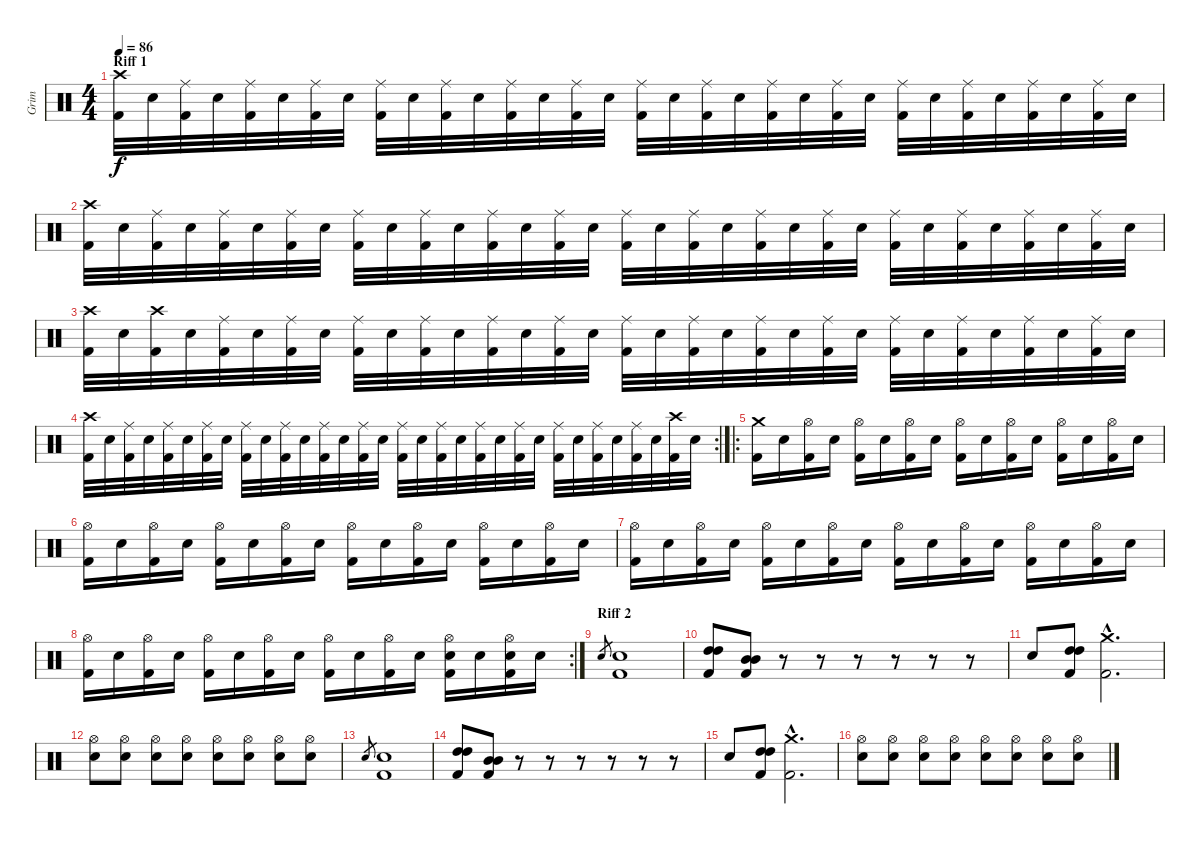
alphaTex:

\track ("Grim" "Grim") {instrument percussion}
\staff {score}
\articulation defaults
\ts (4 4)
\section ("" "Riff 1")
\tempo 86
\clef neutral
\ks c
("Crash high (hit)" "Kick (hit) 2").32{dy f} "Electric Snare (hit)".32 ("Ride (middle)" "Kick (hit) 2").32 "Electric Snare (hit)".32 ("Ride (middle)" "Kick (hit) 2").32 "Electric Snare (hit)".32 ("Ride (middle)" "Kick (hit) 2").32 "Electric Snare (hit)".32 ("Ride (middle)" "Kick (hit) 2").32 "Electric Snare (hit)".32 ("Ride (middle)" "Kick (hit) 2").32 "Electric Snare (hit)".32 ("Ride (middle)" "Kick (hit) 2").32 "Electric Snare (hit)".32 ("Ride (middle)" "Kick (hit) 2").32 "Electric Snare (hit)".32 ("Ride (middle)" "Kick (hit) 2").32 "Electric Snare (hit)".32 ("Ride (middle)" "Kick (hit) 2").32 "Electric Snare (hit)".32 ("Ride (middle)" "Kick (hit) 2").32 "Electric Snare (hit)".32 ("Ride (middle)" "Kick (hit) 2").32 "Electric Snare (hit)".32 ("Ride (middle)" "Kick (hit) 2").32 "Electric Snare (hit)".32 ("Ride (middle)" "Kick (hit) 2").32 "Electric Snare (hit)".32 ("Ride (middle)" "Kick (hit) 2").32 "Electric Snare (hit)".32 ("Ride (middle)" "Kick (hit) 2").32 "Electric Snare (hit)".32 |
("Crash high (hit)" "Kick (hit) 2").32 "Electric Snare (hit)".32 ("Ride (middle)" "Kick (hit) 2").32 "Electric Snare (hit)".32 ("Ride (middle)" "Kick (hit) 2").32 "Electric Snare (hit)".32 ("Ride (middle)" "Kick (hit) 2").32 "Electric Snare (hit)".32 ("Ride (middle)" "Kick (hit) 2").32 "Electric Snare (hit)".32 ("Ride (middle)" "Kick (hit) 2").32 "Electric Snare (hit)".32 ("Ride (middle)" "Kick (hit) 2").32 "Electric Snare (hit)".32 ("Ride (middle)" "Kick (hit) 2").32 "Electric Snare (hit)".32 ("Ride (middle)" "Kick (hit) 2").32 "Electric Snare (hit)".32 ("Ride (middle)" "Kick (hit) 2").32 "Electric Snare (hit)".32 ("Ride (middle)" "Kick (hit) 2").32 "Electric Snare (hit)".32 ("Ride (middle)" "Kick (hit) 2").32 "Electric Snare (hit)".32 ("Ride (middle)" "Kick (hit) 2").32 "Electric Snare (hit)".32 ("Ride (middle)" "Kick (hit) 2").32 "Electric Snare (hit)".32 ("Ride (middle)" "Kick (hit) 2").32 "Electric Snare (hit)".32 ("Ride (middle)" "Kick (hit) 2").32 "Electric Snare (hit)".32 |
("Crash high (hit)" "Kick (hit) 2").32 "Electric Snare (hit)".32 ("Crash high (hit)" "Kick (hit) 2").32 "Electric Snare (hit)".32 ("Ride (middle)" "Kick (hit) 2").32 "Electric Snare (hit)".32 ("Ride (middle)" "Kick (hit) 2").32 "Electric Snare (hit)".32 ("Ride (middle)" "Kick (hit) 2").32 "Electric Snare (hit)".32 ("Ride (middle)" "Kick (hit) 2").32 "Electric Snare (hit)".32 ("Ride (middle)" "Kick (hit) 2").32 "Electric Snare (hit)".32 ("Ride (middle)" "Kick (hit) 2").32 "Electric Snare (hit)".32 ("Ride (middle)" "Kick (hit) 2").32 "Electric Snare (hit)".32 ("Ride (middle)" "Kick (hit) 2").32 "Electric Snare (hit)".32 ("Ride (middle)" "Kick (hit) 2").32 "Electric Snare (hit)".32 ("Ride (middle)" "Kick (hit) 2").32 "Electric Snare (hit)".32 ("Ride (middle)" "Kick (hit) 2").32 "Electric Snare (hit)".32 ("Ride (middle)" "Kick (hit) 2").32 "Electric Snare (hit)".32 ("Ride (middle)" "Kick (hit) 2").32 "Electric Snare (hit)".32 ("Ride (middle)" "Kick (hit) 2").32 "Electric Snare (hit)".32 |
\rc 2
("Crash high (hit)" "Kick (hit) 2").32 "Electric Snare (hit)".32 ("Ride (middle)" "Kick (hit) 2").32 "Electric Snare (hit)".32 ("Ride (middle)" "Kick (hit) 2").32 "Electric Snare (hit)".32 ("Ride (middle)" "Kick (hit) 2").32 "Electric Snare (hit)".32 ("Ride (middle)" "Kick (hit) 2").32 "Electric Snare (hit)".32 ("Ride (middle)" "Kick (hit) 2").32 "Electric Snare (hit)".32 ("Ride (middle)" "Kick (hit) 2").32 "Electric Snare (hit)".32 ("Ride (middle)" "Kick (hit) 2").32 "Electric Snare (hit)".32 ("Ride (middle)" "Kick (hit) 2").32 "Electric Snare (hit)".32 ("Ride (middle)" "Kick (hit) 2").32 "Electric Snare (hit)".32 ("Ride (middle)" "Kick (hit) 2").32 "Electric Snare (hit)".32 ("Ride (middle)" "Kick (hit) 2").32 "Electric Snare (hit)".32 ("Ride (middle)" "Kick (hit) 2").32 "Electric Snare (hit)".32 ("Ride (middle)" "Kick (hit) 2").32 "Electric Snare (hit)".32 ("Ride (middle)" "Kick (hit) 2").32 "Electric Snare (hit)".32 ("Crash high (hit)" "Kick (hit) 2").32 "Electric Snare (hit)".32 |
\ro
("Crash medium (hit)" "Kick (hit) 2").16 "Electric Snare (hit)".16 ("Hi-Hat (open)" "Kick (hit) 2").16 "Electric Snare (hit)".16 ("Hi-Hat (open)" "Kick (hit) 2").16 "Electric Snare (hit)".16 ("Hi-Hat (open)" "Kick (hit) 2").16 "Electric Snare (hit)".16 ("Hi-Hat (open)" "Kick (hit) 2").16 "Electric Snare (hit)".16 ("Hi-Hat (open)" "Kick (hit) 2").16 "Electric Snare (hit)".16 ("Hi-Hat (open)" "Kick (hit) 2").16 "Electric Snare (hit)".16 ("Hi-Hat (open)" "Kick (hit) 2").16 "Electric Snare (hit)".16 |
("Hi-Hat (open)" "Kick (hit) 2").16 "Electric Snare (hit)".16 ("Hi-Hat (open)" "Kick (hit) 2").16 "Electric Snare (hit)".16 ("Hi-Hat (open)" "Kick (hit) 2").16 "Electric Snare (hit)".16 ("Hi-Hat (open)" "Kick (hit) 2").16 "Electric Snare (hit)".16 ("Hi-Hat (open)" "Kick (hit) 2").16 "Electric Snare (hit)".16 ("Hi-Hat (open)" "Kick (hit) 2").16 "Electric Snare (hit)".16 ("Hi-Hat (open)" "Kick (hit) 2").16 "Electric Snare (hit)".16 ("Hi-Hat (open)" "Kick (hit) 2").16 "Electric Snare (hit)".16 |
("Hi-Hat (open)" "Kick (hit) 2").16 "Electric Snare (hit)".16 ("Hi-Hat (open)" "Kick (hit) 2").16 "Electric Snare (hit)".16 ("Hi-Hat (open)" "Kick (hit) 2").16 "Electric Snare (hit)".16 ("Hi-Hat (open)" "Kick (hit) 2").16 "Electric Snare (hit)".16 ("Hi-Hat (open)" "Kick (hit) 2").16 "Electric Snare (hit)".16 ("Hi-Hat (open)" "Kick (hit) 2").16 "Electric Snare (hit)".16 ("Hi-Hat (open)" "Kick (hit) 2").16 "Electric Snare (hit)".16 ("Hi-Hat (open)" "Kick (hit) 2").16 "Electric Snare (hit)".16 |
\rc 2
("Hi-Hat (open)" "Kick (hit) 2").16 "Electric Snare (hit)".16 ("Hi-Hat (open)" "Kick (hit) 2").16 "Electric Snare (hit)".16 ("Hi-Hat (open)" "Kick (hit) 2").16 "Electric Snare (hit)".16 ("Hi-Hat (open)" "Kick (hit) 2").16 "Electric Snare (hit)".16 ("Hi-Hat (open)" "Kick (hit) 2").16 "Electric Snare (hit)".16 ("Hi-Hat (open)" "Kick (hit) 2").16 "Electric Snare (hit)".16 ("Hi-Hat (open)" "Electric Snare (hit)" "Kick (hit) 2").16 "Electric Snare (hit)".16 ("Hi-Hat (open)" "Electric Snare (hit)" "Kick (hit) 2").16 "Electric Snare (hit)".16 |
\section ("" "Riff 2")
"Electric Snare (hit)".8{gr} ("Electric Snare (hit)" "Kick (hit) 2").1 |
("High Tom (hit)" "High Tom (hit)" "Kick (hit) 2").8 ("Mid Tom (hit)" "Mid Tom (hit)" "Kick (hit) 2").8 r.8 r.8 r.8 r.8 r.8 r.8 |
"Electric Snare (hit)".8 ("High Tom (hit)" "High Tom (hit)" "Kick (hit) 2").8 ("Crash medium (hit)"{hac} "Kick (hit) 2"{hac}).2{d} |
("Hi-Hat (open)" "Electric Snare (hit)").8 ("Hi-Hat (open)" "Electric Snare (hit)").8 ("Hi-Hat (open)" "Electric Snare (hit)").8 ("Hi-Hat (open)" "Electric Snare (hit)").8 ("Hi-Hat (open)" "Electric Snare (hit)").8 ("Hi-Hat (open)" "Electric Snare (hit)").8 ("Hi-Hat (open)" "Electric Snare (hit)").8 ("Hi-Hat (open)" "Electric Snare (hit)").8 |
"Electric Snare (hit)".8{gr} ("Electric Snare (hit)" "Kick (hit) 2").1 |
("High Tom (hit)" "High Tom (hit)" "Kick (hit) 2").8 ("Mid Tom (hit)" "Mid Tom (hit)" "Kick (hit) 2").8 r.8 r.8 r.8 r.8 r.8 r.8 |
"Electric Snare (hit)".8 ("High Tom (hit)" "High Tom (hit)" "Kick (hit) 2").8 ("Crash medium (hit)"{hac} "Kick (hit) 2"{hac}).2{d} |
("Hi-Hat (open)" "Electric Snare (hit)").8 ("Hi-Hat (open)" "Electric Snare (hit)").8 ("Hi-Hat (open)" "Electric Snare (hit)").8 ("Hi-Hat (open)" "Electric Snare (hit)").8 ("Hi-Hat (open)" "Electric Snare (hit)").8 ("Hi-Hat (open)" "Electric Snare (hit)").8 ("Hi-Hat (open)" "Electric Snare (hit)").8 ("Hi-Hat (open)" "Electric Snare (hit)").8
